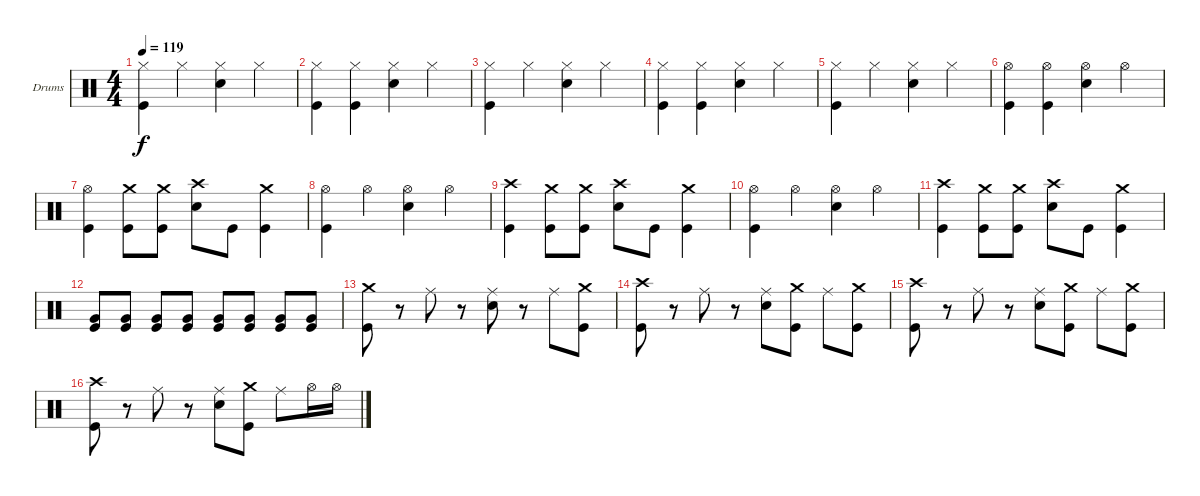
\bracketExtendMode groupsimilarinstruments
\firstSystemTrackNameOrientation horizontal
\otherSystemsTrackNameOrientation horizontal
\track ("Drumkit" "Drums") {instrument percussion}
\staff {score}
\articulation defaults
\ts (4 4)
\tempo 119
\clef neutral
\ks c
("Hi-Hat (closed)" "Kick (hit)").4{dy f} "Hi-Hat (closed)".4 ("Hi-Hat (closed)" "Snare (hit) 2").4 "Hi-Hat (closed)".4 |
("Hi-Hat (closed)" "Kick (hit)").4 ("Hi-Hat (closed)" "Kick (hit)").4 ("Hi-Hat (closed)" "Snare (hit) 2").4 "Hi-Hat (closed)".4 |
("Hi-Hat (closed)" "Kick (hit)").4 "Hi-Hat (closed)".4 ("Hi-Hat (closed)" "Snare (hit) 2").4 "Hi-Hat (closed)".4 |
("Hi-Hat (closed)" "Kick (hit)").4 ("Hi-Hat (closed)" "Kick (hit)").4 ("Hi-Hat (closed)" "Snare (hit) 2").4 "Hi-Hat (closed)".4 |
("Hi-Hat (closed)" "Kick (hit)").4 "Hi-Hat (closed)".4 ("Hi-Hat (closed)" "Snare (hit) 2").4 "Hi-Hat (closed)".4 |
("Hi-Hat (open)" "Kick (hit)").4 ("Hi-Hat (open)" "Kick (hit)").4 ("Hi-Hat (open)" "Snare (hit) 2").4 "Hi-Hat (open)".4 |
("Hi-Hat (open)" "Kick (hit)").4 ("Crash medium (hit)" "Kick (hit)").8 ("Crash medium (hit)" "Kick (hit)").8 ("Crash high (hit)" "Snare (hit) 2").8 "Kick (hit)".8 ("Crash medium (hit)" "Kick (hit)").4 |
("Hi-Hat (open)" "Kick (hit)").4 "Hi-Hat (open)".4 ("Hi-Hat (open)" "Snare (hit) 2").4 "Hi-Hat (open)".4 |
("Crash high (hit)" "Kick (hit)").4 ("Crash medium (hit)" "Kick (hit)").8 ("Crash medium (hit)" "Kick (hit)").8 ("Crash high (hit)" "Snare (hit) 2").8 "Kick (hit)".8 ("Crash medium (hit)" "Kick (hit)").4 |
("Hi-Hat (open)" "Kick (hit)").4 "Hi-Hat (open)".4 ("Hi-Hat (open)" "Snare (hit) 2").4 "Hi-Hat (open)".4 |
("Crash high (hit)" "Kick (hit)").4 ("Crash medium (hit)" "Kick (hit)").8 ("Crash medium (hit)" "Kick (hit)").8 ("Crash high (hit)" "Snare (hit) 2").8 "Kick (hit)".8 ("Crash medium (hit)" "Kick (hit)").4 |
("Very Low Tom (hit)" "Kick (hit)").8 ("Very Low Tom (hit)" "Kick (hit)").8 ("Very Low Tom (hit)" "Kick (hit)").8 ("Very Low Tom (hit)" "Kick (hit)").8 ("Very Low Tom (hit)" "Kick (hit)").8 ("Very Low Tom (hit)" "Kick (hit)").8 ("Very Low Tom (hit)" "Kick (hit)").8 ("Very Low Tom (hit)" "Kick (hit)").8 |
("Crash medium (hit)" "Kick (hit)").8 r.8 "Ride (middle)".8 r.8 ("Ride (middle)" "Snare (hit) 2").8 r.8 "Ride (middle)".8 ("Crash medium (hit)" "Kick (hit)").8 |
("Crash high (hit)" "Kick (hit)").8 r.8 "Ride (middle)".8 r.8 ("Ride (middle)" "Snare (hit) 2").8 ("Crash medium (hit)" "Kick (hit)").8 "Ride (middle)".8 ("Crash medium (hit)" "Kick (hit)").8 |
("Crash high (hit)" "Kick (hit)").8 r.8 "Ride (middle)".8 r.8 ("Ride (middle)" "Snare (hit) 2").8 ("Crash medium (hit)" "Kick (hit)").8 "Ride (middle)".8 ("Crash medium (hit)" "Kick (hit)").8 |
("Crash high (hit)" "Kick (hit)").8 r.8 "Ride (middle)".8 r.8 ("Ride (middle)" "Snare (hit) 2").8 ("Crash medium (hit)" "Kick (hit)").8 "Ride (middle)".8 "Hi-Hat (open)".16 "Hi-Hat (open)".16
